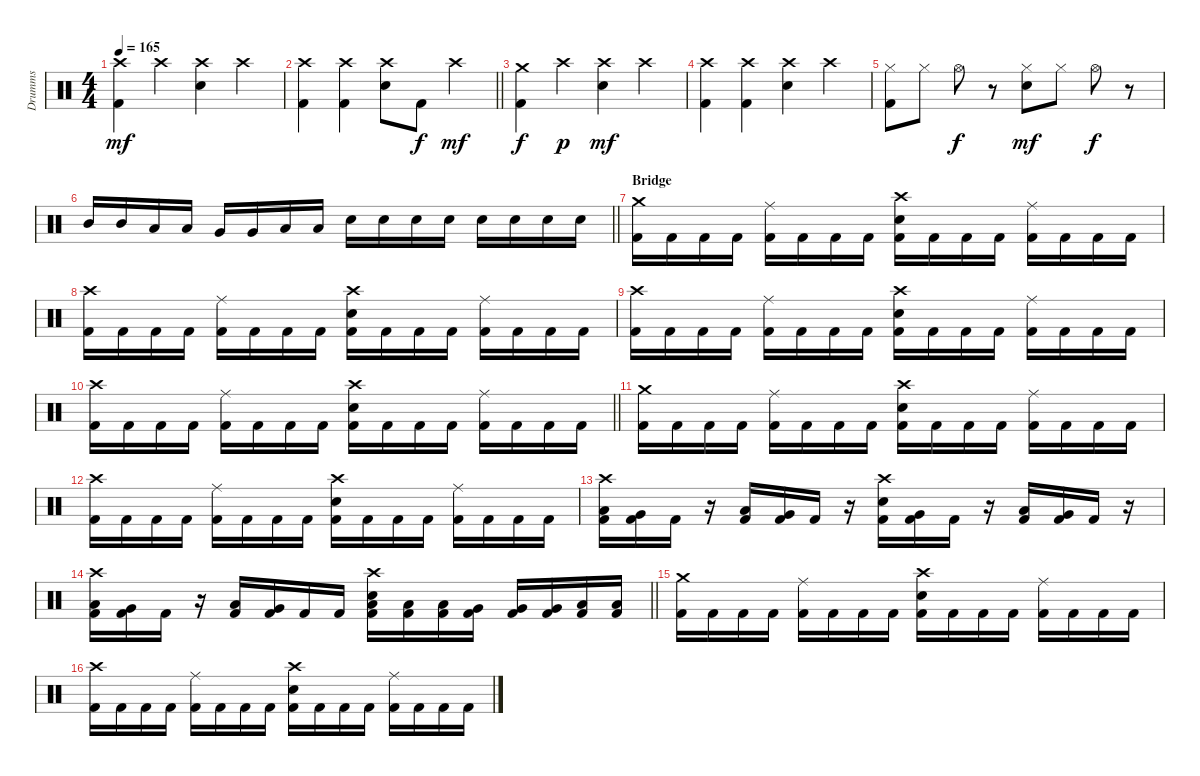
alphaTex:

\track ("Drumms" "Drumms") {instrument percussion}
\staff {score}
\articulation defaults
\ts (4 4)
\tempo 165
\clef neutral
\ks c
("Crash high (hit)" "Kick (hit) 2").4{dy mf} "Crash high (hit)".4 ("Crash high (hit)" "Snare (hit) 2").4 "Crash high (hit)".4 |
\barLineRight lightlight
("Crash high (hit)" "Kick (hit) 2").4 ("Crash high (hit)" "Kick (hit) 2").4 ("Crash high (hit)" "Snare (hit) 2").8 "Kick (hit) 2".8{dy f} "Crash high (hit)".4{dy mf} |
("Crash medium (hit)" "Kick (hit) 2").4{dy f} "Crash high (hit)".4{dy p} ("Crash high (hit)" "Snare (hit) 2").4{dy mf} "Crash high (hit)".4 |
("Crash high (hit)" "Kick (hit) 2").4 ("Crash high (hit)" "Kick (hit) 2").4 ("Crash high (hit)" "Snare (hit) 2").4 "Crash high (hit)".4 |
("Hi-Hat (closed)" "Kick (hit) 2").8 "Hi-Hat (closed)".8 "Hi-Hat (open)".8{dy f} r.8 ("Hi-Hat (closed)" "Snare (hit) 2").8{dy mf} "Hi-Hat (closed)".8 "Hi-Hat (open)".8{dy f} r.8 |
\barLineRight lightlight "Mid Tom (hit)".16 "Mid Tom (hit)".16 "Low Tom (hit)".16 "Low Tom (hit)".16 "Very Low Tom (hit)".16 "Very Low Tom (hit)".16 "Low Floor Tom (hit)".16 "Low Floor Tom (hit)".16 "Electric Snare (hit)".16 "Electric Snare (hit)".16 "Electric Snare (hit)".16 "Electric Snare (hit)".16 "Electric Snare (hit)".16 "Electric Snare (hit)".16 "Electric Snare (hit)".16 "Electric Snare (hit)".16
|
\section ("" "Bridge")
("Crash medium (hit)" "Kick (hit) 2").16 "Kick (hit) 2".16 "Kick (hit) 2".16 "Kick (hit) 2".16 ("Ride (middle)" "Kick (hit) 2").16 "Kick (hit) 2".16 "Kick (hit) 2".16 "Kick (hit) 2".16 ("Crash high (hit)" "Snare (hit) 2" "Kick (hit) 2").16 "Kick (hit) 2".16 "Kick (hit) 2".16 "Kick (hit) 2".16 ("Ride (middle)" "Kick (hit) 2").16 "Kick (hit) 2".16 "Kick (hit) 2".16 "Kick (hit) 2".16 |
("Crash high (hit)" "Kick (hit) 2").16 "Kick (hit) 2".16 "Kick (hit) 2".16 "Kick (hit) 2".16 ("Ride (middle)" "Kick (hit) 2").16 "Kick (hit) 2".16 "Kick (hit) 2".16 "Kick (hit) 2".16 ("Crash high (hit)" "Snare (hit) 2" "Kick (hit) 2").16 "Kick (hit) 2".16 "Kick (hit) 2".16 "Kick (hit) 2".16 ("Ride (middle)" "Kick (hit) 2").16 "Kick (hit) 2".16 "Kick (hit) 2".16 "Kick (hit) 2".16 |
("Crash high (hit)" "Kick (hit) 2").16 "Kick (hit) 2".16 "Kick (hit) 2".16 "Kick (hit) 2".16 ("Ride (middle)" "Kick (hit) 2").16 "Kick (hit) 2".16 "Kick (hit) 2".16 "Kick (hit) 2".16 ("Crash high (hit)" "Snare (hit) 2" "Kick (hit) 2").16 "Kick (hit) 2".16 "Kick (hit) 2".16 "Kick (hit) 2".16 ("Ride (middle)" "Kick (hit) 2").16 "Kick (hit) 2".16 "Kick (hit) 2".16 "Kick (hit) 2".16 |
\barLineRight lightlight
("Crash high (hit)" "Kick (hit) 2").16 "Kick (hit) 2".16 "Kick (hit) 2".16 "Kick (hit) 2".16 ("Ride (middle)" "Kick (hit) 2").16 "Kick (hit) 2".16 "Kick (hit) 2".16 "Kick (hit) 2".16 ("Crash high (hit)" "Snare (hit) 2" "Kick (hit) 2").16 "Kick (hit) 2".16 "Kick (hit) 2".16 "Kick (hit) 2".16 ("Ride (middle)" "Kick (hit) 2").16 "Kick (hit) 2".16 "Kick (hit) 2".16 "Kick (hit) 2".16 |
("Crash medium (hit)" "Kick (hit) 2").16 "Kick (hit) 2".16 "Kick (hit) 2".16 "Kick (hit) 2".16 ("Ride (middle)" "Kick (hit) 2").16 "Kick (hit) 2".16 "Kick (hit) 2".16 "Kick (hit) 2".16 ("Crash high (hit)" "Snare (hit) 2" "Kick (hit) 2").16 "Kick (hit) 2".16 "Kick (hit) 2".16 "Kick (hit) 2".16 ("Ride (middle)" "Kick (hit) 2").16 "Kick (hit) 2".16 "Kick (hit) 2".16 "Kick (hit) 2".16 |
("Crash high (hit)" "Kick (hit) 2").16 "Kick (hit) 2".16 "Kick (hit) 2".16 "Kick (hit) 2".16 ("Ride (middle)" "Kick (hit) 2").16 "Kick (hit) 2".16 "Kick (hit) 2".16 "Kick (hit) 2".16 ("Crash high (hit)" "Snare (hit) 2" "Kick (hit) 2").16 "Kick (hit) 2".16 "Kick (hit) 2".16 "Kick (hit) 2".16 ("Ride (middle)" "Kick (hit) 2").16 "Kick (hit) 2".16 "Kick (hit) 2".16 "Kick (hit) 2".16 |
("Crash high (hit)" "Low Tom (hit)" "Kick (hit) 2").16 ("Very Low Tom (hit)" "Kick (hit) 2").16 "Kick (hit) 2".16 r.16 ("Low Tom (hit)" "Kick (hit) 2").16 ("Very Low Tom (hit)" "Kick (hit) 2").16 "Kick (hit) 2".16 r.16 ("Crash high (hit)" "Snare (hit) 2" "Kick (hit) 2").16 ("Very Low Tom (hit)" "Kick (hit) 2").16 "Kick (hit) 2".16 r.16 ("Low Tom (hit)" "Kick (hit) 2").16 ("Very Low Tom (hit)" "Kick (hit) 2").16 "Kick (hit) 2".16 r.16 |
\barLineRight lightlight
("Crash high (hit)" "Low Tom (hit)" "Kick (hit) 2").16 ("Very Low Tom (hit)" "Kick (hit) 2").16 "Kick (hit) 2".16 r.16 ("Low Tom (hit)" "Kick (hit) 2").16 ("Very Low Tom (hit)" "Kick (hit) 2").16 "Kick (hit) 2".16 "Kick (hit) 2".16 ("Crash high (hit)" "Low Tom (hit)" "Snare (hit) 2" "Kick (hit) 2").16 ("Low Tom (hit)" "Kick (hit) 2").16 ("Low Tom (hit)" "Kick (hit) 2").16 ("Very Low Tom (hit)" "Kick (hit) 2").16 ("Very Low Tom (hit)" "Kick (hit) 2").16 ("Very Low Tom (hit)" "Kick (hit) 2").16 ("Low Floor Tom (hit)" "Kick (hit) 2").16 ("Low Floor Tom (hit)" "Kick (hit) 2").16 |
("Crash medium (hit)" "Kick (hit) 2").16 "Kick (hit) 2".16 "Kick (hit) 2".16 "Kick (hit) 2".16 ("Ride (middle)" "Kick (hit) 2").16 "Kick (hit) 2".16 "Kick (hit) 2".16 "Kick (hit) 2".16 ("Crash high (hit)" "Snare (hit) 2" "Kick (hit) 2").16 "Kick (hit) 2".16 "Kick (hit) 2".16 "Kick (hit) 2".16 ("Ride (middle)" "Kick (hit) 2").16 "Kick (hit) 2".16 "Kick (hit) 2".16 "Kick (hit) 2".16 |
("Crash high (hit)" "Kick (hit) 2").16 "Kick (hit) 2".16 "Kick (hit) 2".16 "Kick (hit) 2".16 ("Ride (middle)" "Kick (hit) 2").16 "Kick (hit) 2".16 "Kick (hit) 2".16 "Kick (hit) 2".16 ("Crash high (hit)" "Snare (hit) 2" "Kick (hit) 2").16 "Kick (hit) 2".16 "Kick (hit) 2".16 "Kick (hit) 2".16 ("Ride (middle)" "Kick (hit) 2").16 "Kick (hit) 2".16 "Kick (hit) 2".16 "Kick (hit) 2".16
